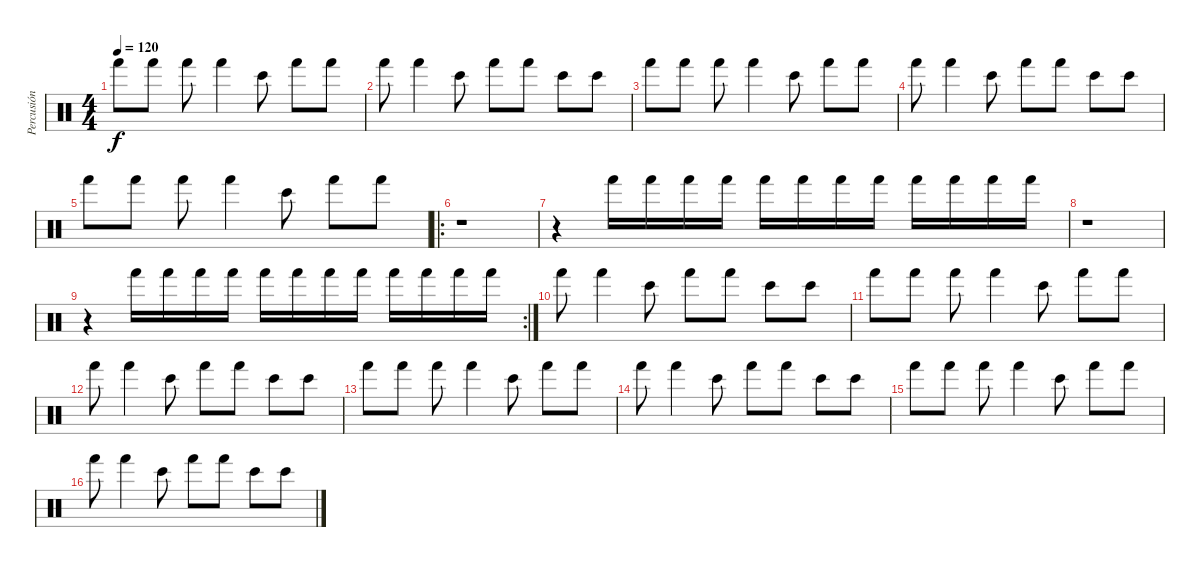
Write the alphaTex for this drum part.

\track ("Percusión" "Percusión") {instrument percussion}
\staff
\articulation defaults
\ts (4 4)
\tempo 120
\clef neutral
\ks c "Hand (hit)".8{dy f} "Hand (hit)".8 "Hand (hit)".8 "Hand (hit)".4 "Bongo High (hit)".8 "Hand (hit)".8 "Hand (hit)".8
|
"Hand (hit)".8 "Hand (hit)".4 "Bongo High (hit)".8 "Hand (hit)".8 "Hand (hit)".8 "Bongo High (hit)".8 "Bongo High (hit)".8 |
"Hand (hit)".8 "Hand (hit)".8 "Hand (hit)".8 "Hand (hit)".4 "Bongo High (hit)".8 "Hand (hit)".8 "Hand (hit)".8 |
"Hand (hit)".8 "Hand (hit)".4 "Bongo High (hit)".8 "Hand (hit)".8 "Hand (hit)".8 "Bongo High (hit)".8 "Bongo High (hit)".8 |
"Hand (hit)".8 "Hand (hit)".8 "Hand (hit)".8 "Hand (hit)".4 "Bongo High (hit)".8 "Hand (hit)".8 "Hand (hit)".8 |
\ro
r.1 |
r.4 "Hand (hit)".16 "Hand (hit)".16 "Hand (hit)".16 "Hand (hit)".16 "Hand (hit)".16 "Hand (hit)".16 "Hand (hit)".16 "Hand (hit)".16 "Hand (hit)".16 "Hand (hit)".16 "Hand (hit)".16 "Hand (hit)".16 |
r.1 |
\rc 2
r.4 "Hand (hit)".16 "Hand (hit)".16 "Hand (hit)".16 "Hand (hit)".16 "Hand (hit)".16 "Hand (hit)".16 "Hand (hit)".16 "Hand (hit)".16 "Hand (hit)".16 "Hand (hit)".16 "Hand (hit)".16 "Hand (hit)".16 |
"Hand (hit)".8 "Hand (hit)".4 "Bongo High (hit)".8 "Hand (hit)".8 "Hand (hit)".8 "Bongo High (hit)".8 "Bongo High (hit)".8 |
"Hand (hit)".8 "Hand (hit)".8 "Hand (hit)".8 "Hand (hit)".4 "Bongo High (hit)".8 "Hand (hit)".8 "Hand (hit)".8 |
"Hand (hit)".8 "Hand (hit)".4 "Bongo High (hit)".8 "Hand (hit)".8 "Hand (hit)".8 "Bongo High (hit)".8 "Bongo High (hit)".8 |
"Hand (hit)".8 "Hand (hit)".8 "Hand (hit)".8 "Hand (hit)".4 "Bongo High (hit)".8 "Hand (hit)".8 "Hand (hit)".8 |
"Hand (hit)".8 "Hand (hit)".4 "Bongo High (hit)".8 "Hand (hit)".8 "Hand (hit)".8 "Bongo High (hit)".8 "Bongo High (hit)".8 |
"Hand (hit)".8 "Hand (hit)".8 "Hand (hit)".8 "Hand (hit)".4 "Bongo High (hit)".8 "Hand (hit)".8 "Hand (hit)".8 |
"Hand (hit)".8 "Hand (hit)".4 "Bongo High (hit)".8 "Hand (hit)".8 "Hand (hit)".8 "Bongo High (hit)".8 "Bongo High (hit)".8
